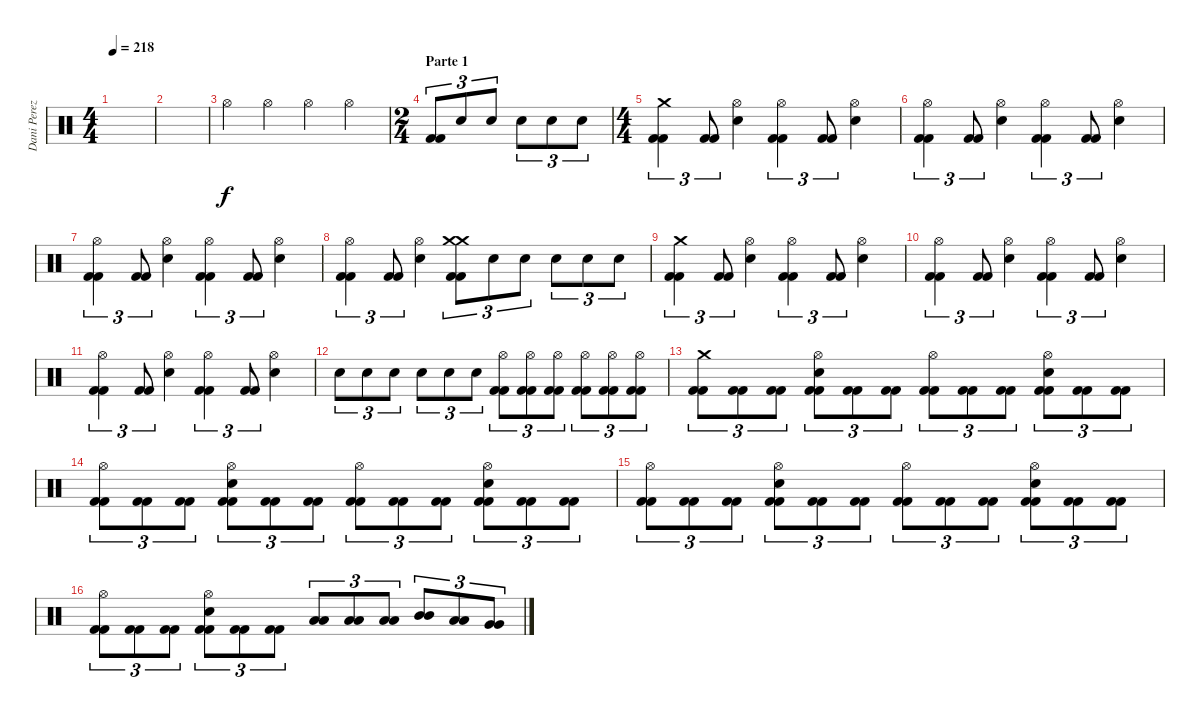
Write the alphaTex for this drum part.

\track ("Dani Perez" "Dani Perez") {instrument percussion}
\staff {score}
\articulation defaults
\ts (4 4)
\tempo 218
\clef neutral
\ks c
|
|
"Hi-Hat (open)".4 "Hi-Hat (open)".4 "Hi-Hat (open)".4 "Hi-Hat (open)".4 |
\ts (2 4)
\section ("" "Parte 1")
("Kick (hit) 2" "Kick (hit) 2").8{tu (3 2)} "Snare (hit) 2".8{tu (3 2)} "Snare (hit) 2".8{tu (3 2)} "Snare (hit) 2".8{tu (3 2)} "Snare (hit) 2".8{tu (3 2)} "Snare (hit) 2".8{tu (3 2)} |
\ts (4 4)
("Crash medium (hit)" "Kick (hit) 2" "Kick (hit) 2").4{tu (3 2)} ("Kick (hit) 2" "Kick (hit) 2").8{tu (3 2)} ("Hi-Hat (open)" "Snare (hit) 2").4 ("Hi-Hat (open)" "Kick (hit) 2" "Kick (hit) 2").4{tu (3 2)} ("Kick (hit) 2" "Kick (hit) 2").8{tu (3 2)} ("Hi-Hat (open)" "Snare (hit) 2").4 |
("Hi-Hat (open)" "Kick (hit) 2" "Kick (hit) 2").4{tu (3 2)} ("Kick (hit) 2" "Kick (hit) 2").8{tu (3 2)} ("Hi-Hat (open)" "Snare (hit) 2").4 ("Hi-Hat (open)" "Kick (hit) 2" "Kick (hit) 2").4{tu (3 2)} ("Kick (hit) 2" "Kick (hit) 2").8{tu (3 2)} ("Hi-Hat (open)" "Snare (hit) 2").4 |
("Hi-Hat (open)" "Kick (hit) 2" "Kick (hit) 2").4{tu (3 2)} ("Kick (hit) 2" "Kick (hit) 2").8{tu (3 2)} ("Hi-Hat (open)" "Snare (hit) 2").4 ("Hi-Hat (open)" "Kick (hit) 2" "Kick (hit) 2").4{tu (3 2)} ("Kick (hit) 2" "Kick (hit) 2").8{tu (3 2)} ("Hi-Hat (open)" "Snare (hit) 2").4 |
("Hi-Hat (open)" "Kick (hit) 2" "Kick (hit) 2").4{tu (3 2)} ("Kick (hit) 2" "Kick (hit) 2").8{tu (3 2)} ("Snare (hit) 2" "Hi-Hat (open)").4 ("Crash medium (hit)" "Crash medium (hit)" "Kick (hit) 2" "Kick (hit) 2").8{tu (3 2)} "Snare (hit) 2".8{tu (3 2)} "Snare (hit) 2".8{tu (3 2)} "Snare (hit) 2".8{tu (3 2)} "Snare (hit) 2".8{tu (3 2)} "Snare (hit) 2".8{tu (3 2)} |
("Crash medium (hit)" "Kick (hit) 2" "Kick (hit) 2").4{tu (3 2)} ("Kick (hit) 2" "Kick (hit) 2").8{tu (3 2)} ("Hi-Hat (open)" "Snare (hit) 2").4 ("Hi-Hat (open)" "Kick (hit) 2" "Kick (hit) 2").4{tu (3 2)} ("Kick (hit) 2" "Kick (hit) 2").8{tu (3 2)} ("Hi-Hat (open)" "Snare (hit) 2").4 |
("Hi-Hat (open)" "Kick (hit) 2" "Kick (hit) 2").4{tu (3 2)} ("Kick (hit) 2" "Kick (hit) 2").8{tu (3 2)} ("Hi-Hat (open)" "Snare (hit) 2").4 ("Hi-Hat (open)" "Kick (hit) 2" "Kick (hit) 2").4{tu (3 2)} ("Kick (hit) 2" "Kick (hit) 2").8{tu (3 2)} ("Hi-Hat (open)" "Snare (hit) 2").4 |
("Hi-Hat (open)" "Kick (hit) 2" "Kick (hit) 2").4{tu (3 2)} ("Kick (hit) 2" "Kick (hit) 2").8{tu (3 2)} ("Hi-Hat (open)" "Snare (hit) 2").4 ("Hi-Hat (open)" "Kick (hit) 2" "Kick (hit) 2").4{tu (3 2)} ("Kick (hit) 2" "Kick (hit) 2").8{tu (3 2)} ("Hi-Hat (open)" "Snare (hit) 2").4 |
"Snare (hit) 2".8{tu (3 2)} "Snare (hit) 2".8{tu (3 2)} "Snare (hit) 2".8{tu (3 2)} "Snare (hit) 2".8{tu (3 2)} "Snare (hit) 2".8{tu (3 2)} "Snare (hit) 2".8{tu (3 2)} ("Hi-Hat (open)" "Kick (hit) 2" "Kick (hit) 2").8{tu (3 2)} ("Hi-Hat (open)" "Kick (hit) 2" "Kick (hit) 2").8{tu (3 2)} ("Hi-Hat (open)" "Kick (hit) 2" "Kick (hit) 2").8{tu (3 2)} ("Hi-Hat (open)" "Kick (hit) 2" "Kick (hit) 2").8{tu (3 2)} ("Hi-Hat (open)" "Kick (hit) 2" "Kick (hit) 2").8{tu (3 2)} ("Hi-Hat (open)" "Kick (hit) 2" "Kick (hit) 2").8{tu (3 2)} |
("Crash medium (hit)" "Kick (hit) 2" "Kick (hit) 2").8{tu (3 2)} ("Kick (hit) 2" "Kick (hit) 2").8{tu (3 2)} ("Kick (hit) 2" "Kick (hit) 2").8{tu (3 2)} ("Hi-Hat (open)" "Snare (hit) 2" "Kick (hit) 2" "Kick (hit) 2").8{tu (3 2)} ("Kick (hit) 2" "Kick (hit) 2").8{tu (3 2)} ("Kick (hit) 2" "Kick (hit) 2").8{tu (3 2)} ("Hi-Hat (open)" "Kick (hit) 2" "Kick (hit) 2").8{tu (3 2)} ("Kick (hit) 2" "Kick (hit) 2").8{tu (3 2)} ("Kick (hit) 2" "Kick (hit) 2").8{tu (3 2)} ("Hi-Hat (open)" "Snare (hit) 2" "Kick (hit) 2" "Kick (hit) 2").8{tu (3 2)} ("Kick (hit) 2" "Kick (hit) 2").8{tu (3 2)} ("Kick (hit) 2" "Kick (hit) 2").8{tu (3 2)} |
("Hi-Hat (open)" "Kick (hit) 2" "Kick (hit) 2").8{tu (3 2)} ("Kick (hit) 2" "Kick (hit) 2").8{tu (3 2)} ("Kick (hit) 2" "Kick (hit) 2").8{tu (3 2)} ("Hi-Hat (open)" "Snare (hit) 2" "Kick (hit) 2" "Kick (hit) 2").8{tu (3 2)} ("Kick (hit) 2" "Kick (hit) 2").8{tu (3 2)} ("Kick (hit) 2" "Kick (hit) 2").8{tu (3 2)} ("Hi-Hat (open)" "Kick (hit) 2" "Kick (hit) 2").8{tu (3 2)} ("Kick (hit) 2" "Kick (hit) 2").8{tu (3 2)} ("Kick (hit) 2" "Kick (hit) 2").8{tu (3 2)} ("Hi-Hat (open)" "Snare (hit) 2" "Kick (hit) 2" "Kick (hit) 2").8{tu (3 2)} ("Kick (hit) 2" "Kick (hit) 2").8{tu (3 2)} ("Kick (hit) 2" "Kick (hit) 2").8{tu (3 2)} |
("Hi-Hat (open)" "Kick (hit) 2" "Kick (hit) 2").8{tu (3 2)} ("Kick (hit) 2" "Kick (hit) 2").8{tu (3 2)} ("Kick (hit) 2" "Kick (hit) 2").8{tu (3 2)} ("Hi-Hat (open)" "Snare (hit) 2" "Kick (hit) 2" "Kick (hit) 2").8{tu (3 2)} ("Kick (hit) 2" "Kick (hit) 2").8{tu (3 2)} ("Kick (hit) 2" "Kick (hit) 2").8{tu (3 2)} ("Hi-Hat (open)" "Kick (hit) 2" "Kick (hit) 2").8{tu (3 2)} ("Kick (hit) 2" "Kick (hit) 2").8{tu (3 2)} ("Kick (hit) 2" "Kick (hit) 2").8{tu (3 2)} ("Hi-Hat (open)" "Snare (hit) 2" "Kick (hit) 2" "Kick (hit) 2").8{tu (3 2)} ("Kick (hit) 2" "Kick (hit) 2").8{tu (3 2)} ("Kick (hit) 2" "Kick (hit) 2").8{tu (3 2)} |
("Hi-Hat (open)" "Kick (hit) 2" "Kick (hit) 2").8{tu (3 2)} ("Kick (hit) 2" "Kick (hit) 2").8{tu (3 2)} ("Kick (hit) 2" "Kick (hit) 2").8{tu (3 2)} ("Hi-Hat (open)" "Snare (hit) 2" "Kick (hit) 2" "Kick (hit) 2").8{tu (3 2)} ("Kick (hit) 2" "Kick (hit) 2").8{tu (3 2)} ("Kick (hit) 2" "Kick (hit) 2").8{tu (3 2)} ("Low Tom (hit)" "Low Tom (hit)").8{tu (3 2)} ("Low Tom (hit)" "Low Tom (hit)").8{tu (3 2)} ("Low Tom (hit)" "Low Tom (hit)").8{tu (3 2)} ("Mid Tom (hit)" "Mid Tom (hit)").8{tu (3 2)} ("Low Tom (hit)" "Low Tom (hit)").8{tu (3 2)} ("Very Low Tom (hit)" "Very Low Tom (hit)").8{tu (3 2)}
